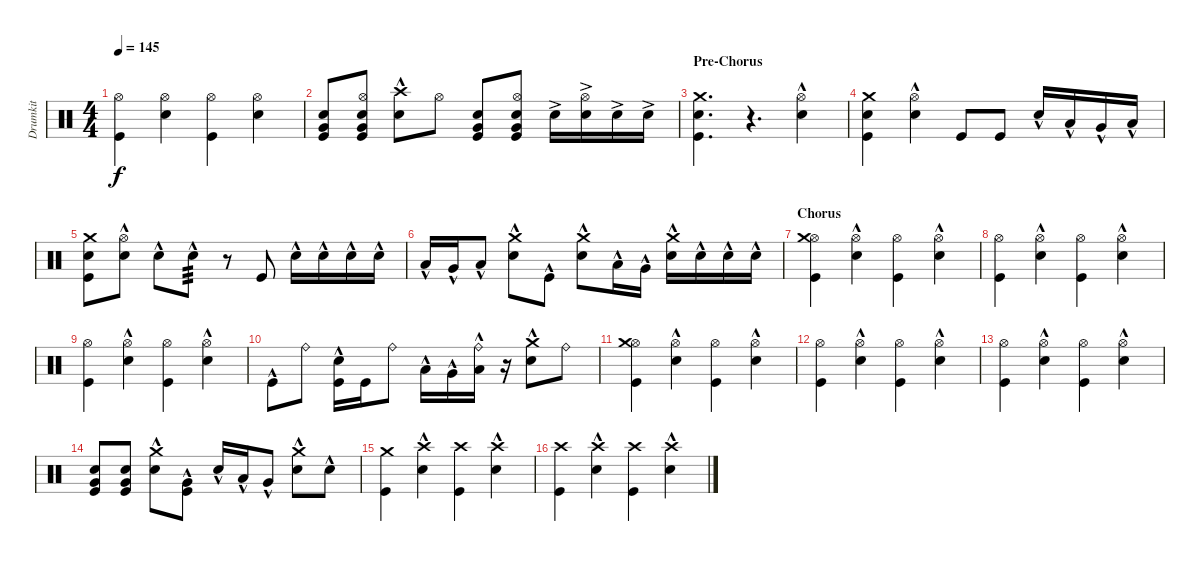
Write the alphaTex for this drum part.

\track ("Drumkit" "Drumkit") {instrument percussion}
\staff {score}
\articulation defaults
\ts (4 4)
\tempo 145
\clef neutral
\ks c
("Kick (hit)" "Hi-Hat (open)").4{dy f} ("Snare (hit) 2" "Hi-Hat (open)").4 ("Kick (hit)" "Hi-Hat (open)").4 ("Snare (hit) 2" "Hi-Hat (open)").4 |
("Kick (hit)" "Very Low Tom (hit)" "Snare (hit) 2").8 ("Hi-Hat (open)" "Kick (hit)" "Very Low Tom (hit)" "Snare (hit) 2").8 ("Snare (hit) 2"{hac} "Crash high (hit)"{hac}).8 "Hi-Hat (open)".8 ("Kick (hit)" "Very Low Tom (hit)" "Snare (hit) 2").8 ("Hi-Hat (open)" "Kick (hit)" "Very Low Tom (hit)" "Snare (hit) 2").8 "Snare (hit) 2"{ac}.16 ("Hi-Hat (open)" "Snare (hit) 2"{ac}).16 "Snare (hit) 2"{ac}.16 "Snare (hit) 2"{ac}.16 |
\section ("" "Pre-Chorus")
("Snare (hit) 2" "Crash medium (hit)" "Kick (hit)").4{d} r.4{d} ("Snare (hit) 2"{hac} "Hi-Hat (open)").4 |
("Snare (hit) 2" "Crash medium (hit)" "Kick (hit)").4 ("Snare (hit) 2"{hac} "Hi-Hat (open)").4 "Kick (hit)".8 "Kick (hit)".8 "Snare (hit) 2"{hac}.16 "Low Tom (hit)"{hac}.16 "Very Low Tom (hit)"{hac}.16 "Low Floor Tom (hit)"{hac}.16 |
("Snare (hit) 2" "Crash medium (hit)" "Kick (hit)").8 ("Snare (hit) 2"{hac} "Hi-Hat (open)").8 "Snare (hit) 2"{hac}.8 "Snare (hit) 2"{hac}.8{tp 3} r.8 "Kick (hit)".8 "Snare (hit) 2"{hac}.16 "Snare (hit) 2"{hac}.16 "Snare (hit) 2"{hac}.16 "Snare (hit) 2"{hac}.16 |
"Low Tom (hit)"{hac}.16 "Very Low Tom (hit)"{hac}.16 "Low Floor Tom (hit)"{hac}.8 ("Snare (hit) 2"{hac} "Crash medium (hit)"{hac}).8 "Kick (hit)"{hac}.8 ("Snare (hit) 2"{hac} "Crash medium (hit)").8 "Low Tom (hit)"{hac}.16 "Very Low Tom (hit)"{hac}.16 ("Snare (hit) 2"{hac} "Crash medium (hit)").16 "Snare (hit) 2"{hac}.16 "Snare (hit) 2"{hac}.16 "Snare (hit) 2"{hac}.16 |
\section ("" "Chorus")
("Kick (hit)" "Hi-Hat (open)" "Crash medium (hit)").4 ("Snare (hit) 2"{hac} "Hi-Hat (open)").4 ("Kick (hit)" "Hi-Hat (open)").4 ("Snare (hit) 2"{hac} "Hi-Hat (open)").4 |
("Kick (hit)" "Hi-Hat (open)").4 ("Snare (hit) 2"{hac} "Hi-Hat (open)").4 ("Kick (hit)" "Hi-Hat (open)").4 ("Snare (hit) 2"{hac} "Hi-Hat (open)").4 |
("Kick (hit)" "Hi-Hat (open)").4 ("Snare (hit) 2"{hac} "Hi-Hat (open)").4 ("Kick (hit)" "Hi-Hat (open)").4 ("Snare (hit) 2"{hac} "Hi-Hat (open)").4 |
"Kick (hit)"{hac}.8 "Ride (bell)".8 ("Kick (hit)" "Snare (hit) 2"{hac}).16 "Kick (hit)".16 "Ride (bell)".8 "Low Tom (hit)"{hac}.16 "Very Low Tom (hit)"{hac}.16 ("Low Floor Tom (hit)"{hac} "Ride (bell)"{hac}).16 r.16 ("Snare (hit) 2"{hac} "Crash medium (hit)").8 "Ride (bell)".8 |
("Kick (hit)" "Hi-Hat (open)" "Crash medium (hit)").4 ("Snare (hit) 2"{hac} "Hi-Hat (open)").4 ("Kick (hit)" "Hi-Hat (open)").4 ("Snare (hit) 2"{hac} "Hi-Hat (open)").4 |
("Kick (hit)" "Hi-Hat (open)").4 ("Snare (hit) 2"{hac} "Hi-Hat (open)").4 ("Kick (hit)" "Hi-Hat (open)").4 ("Snare (hit) 2"{hac} "Hi-Hat (open)").4 |
("Kick (hit)" "Hi-Hat (open)").4 ("Snare (hit) 2"{hac} "Hi-Hat (open)").4 ("Kick (hit)" "Hi-Hat (open)").4 ("Snare (hit) 2"{hac} "Hi-Hat (open)").4 |
("Kick (hit)" "Very Low Tom (hit)" "Snare (hit) 2").8 ("Kick (hit)" "Very Low Tom (hit)" "Snare (hit) 2").8 ("Snare (hit) 2"{hac} "Crash medium (hit)"{hac}).8 ("Kick (hit)"{hac} "Very Low Tom (hit)"{hac}).8 "Snare (hit) 2"{hac}.16 "Low Tom (hit)"{hac}.16 "Very Low Tom (hit)"{hac}.8 ("Snare (hit) 2"{hac} "Crash medium (hit)"{hac}).8 "Snare (hit) 2"{hac}.8 |
("Kick (hit)" "Crash medium (hit)").4 ("Snare (hit) 2"{hac} "Crash high (hit)").4 ("Kick (hit)" "Crash high (hit)").4 ("Snare (hit) 2"{hac} "Crash high (hit)").4 |
("Kick (hit)" "Crash high (hit)").4 ("Snare (hit) 2"{hac} "Crash high (hit)").4 ("Kick (hit)" "Crash high (hit)").4 ("Snare (hit) 2"{hac} "Crash high (hit)").4
